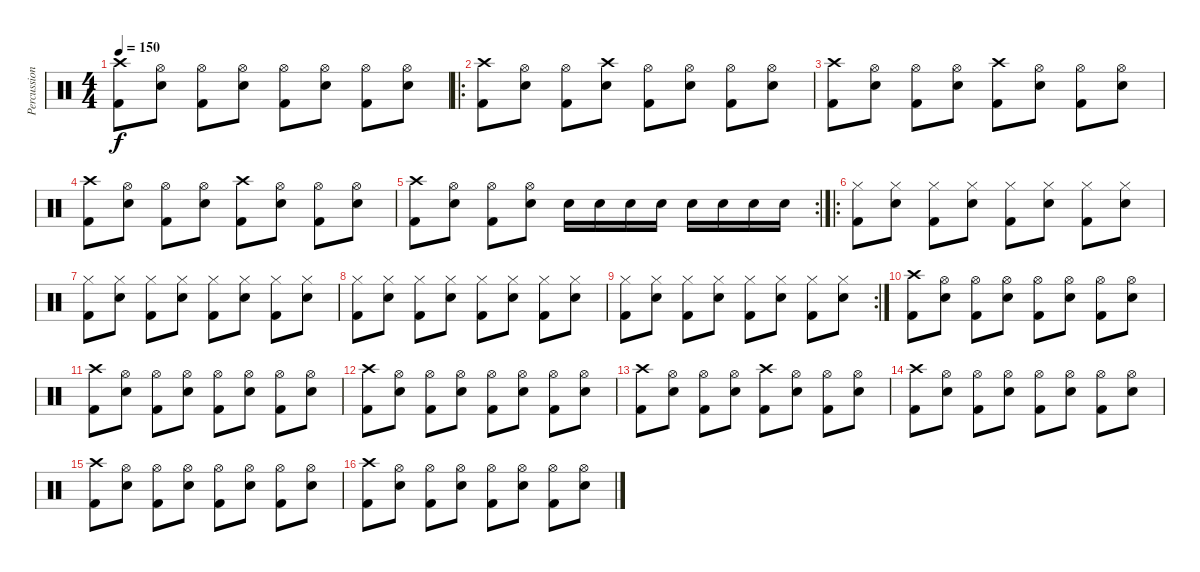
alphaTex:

\track ("Percussion" "Percussion") {instrument percussion}
\staff {score}
\articulation defaults
\ts (4 4)
\tempo 150
\clef neutral
\ks c
("Crash high (hit)" "Kick (hit) 2").8{dy f} ("Hi-Hat (open)" "Electric Snare (hit)").8 ("Hi-Hat (open)" "Kick (hit) 2").8 ("Hi-Hat (open)" "Electric Snare (hit)").8 ("Hi-Hat (open)" "Kick (hit) 2").8 ("Hi-Hat (open)" "Electric Snare (hit)").8 ("Hi-Hat (open)" "Kick (hit) 2").8 ("Hi-Hat (open)" "Electric Snare (hit)").8 |
\ro
("Crash high (hit)" "Kick (hit) 2").8 ("Hi-Hat (open)" "Electric Snare (hit)").8 ("Hi-Hat (open)" "Kick (hit) 2").8 ("Crash high (hit)" "Electric Snare (hit)").8 ("Hi-Hat (open)" "Kick (hit) 2").8 ("Hi-Hat (open)" "Electric Snare (hit)").8 ("Hi-Hat (open)" "Kick (hit) 2").8 ("Hi-Hat (open)" "Electric Snare (hit)").8 |
("Crash high (hit)" "Kick (hit) 2").8 ("Hi-Hat (open)" "Electric Snare (hit)").8 ("Hi-Hat (open)" "Kick (hit) 2").8 ("Hi-Hat (open)" "Electric Snare (hit)").8 ("Crash high (hit)" "Kick (hit) 2").8 ("Hi-Hat (open)" "Electric Snare (hit)").8 ("Hi-Hat (open)" "Kick (hit) 2").8 ("Hi-Hat (open)" "Electric Snare (hit)").8 |
("Crash high (hit)" "Kick (hit) 2").8 ("Hi-Hat (open)" "Electric Snare (hit)").8 ("Hi-Hat (open)" "Kick (hit) 2").8 ("Hi-Hat (open)" "Electric Snare (hit)").8 ("Crash high (hit)" "Kick (hit) 2").8 ("Hi-Hat (open)" "Electric Snare (hit)").8 ("Hi-Hat (open)" "Kick (hit) 2").8 ("Hi-Hat (open)" "Electric Snare (hit)").8 |
\rc 2
("Crash high (hit)" "Kick (hit) 2").8 ("Hi-Hat (open)" "Electric Snare (hit)").8 ("Hi-Hat (open)" "Kick (hit) 2").8 ("Hi-Hat (open)" "Electric Snare (hit)").8 "Electric Snare (hit)".16 "Electric Snare (hit)".16 "Electric Snare (hit)".16 "Electric Snare (hit)".16 "Electric Snare (hit)".16 "Electric Snare (hit)".16 "Electric Snare (hit)".16 "Electric Snare (hit)".16 |
\ro
("Hi-Hat (closed)" "Kick (hit) 2").8 ("Hi-Hat (closed)" "Electric Snare (hit)").8 ("Hi-Hat (closed)" "Kick (hit) 2").8 ("Hi-Hat (closed)" "Electric Snare (hit)").8 ("Hi-Hat (closed)" "Kick (hit) 2").8 ("Hi-Hat (closed)" "Electric Snare (hit)").8 ("Hi-Hat (closed)" "Kick (hit) 2").8 ("Hi-Hat (closed)" "Electric Snare (hit)").8 |
("Hi-Hat (closed)" "Kick (hit) 2").8 ("Hi-Hat (closed)" "Electric Snare (hit)").8 ("Hi-Hat (closed)" "Kick (hit) 2").8 ("Hi-Hat (closed)" "Electric Snare (hit)").8 ("Hi-Hat (closed)" "Kick (hit) 2").8 ("Hi-Hat (closed)" "Electric Snare (hit)").8 ("Hi-Hat (closed)" "Kick (hit) 2").8 ("Hi-Hat (closed)" "Electric Snare (hit)").8 |
("Hi-Hat (closed)" "Kick (hit) 2").8 ("Hi-Hat (closed)" "Electric Snare (hit)").8 ("Hi-Hat (closed)" "Kick (hit) 2").8 ("Hi-Hat (closed)" "Electric Snare (hit)").8 ("Hi-Hat (closed)" "Kick (hit) 2").8 ("Hi-Hat (closed)" "Electric Snare (hit)").8 ("Hi-Hat (closed)" "Kick (hit) 2").8 ("Hi-Hat (closed)" "Electric Snare (hit)").8 |
\rc 2
("Hi-Hat (closed)" "Kick (hit) 2").8 ("Hi-Hat (closed)" "Electric Snare (hit)").8 ("Hi-Hat (closed)" "Kick (hit) 2").8 ("Hi-Hat (closed)" "Electric Snare (hit)").8 ("Hi-Hat (closed)" "Kick (hit) 2").8 ("Hi-Hat (closed)" "Electric Snare (hit)").8 ("Hi-Hat (closed)" "Kick (hit) 2").8 ("Hi-Hat (closed)" "Electric Snare (hit)").8 |
("Crash high (hit)" "Kick (hit) 2").8 ("Hi-Hat (open)" "Electric Snare (hit)").8 ("Hi-Hat (open)" "Kick (hit) 2").8 ("Hi-Hat (open)" "Electric Snare (hit)").8 ("Hi-Hat (open)" "Kick (hit) 2").8 ("Hi-Hat (open)" "Electric Snare (hit)").8 ("Hi-Hat (open)" "Kick (hit) 2").8 ("Hi-Hat (open)" "Electric Snare (hit)").8 |
("Crash high (hit)" "Kick (hit) 2").8 ("Hi-Hat (open)" "Electric Snare (hit)").8 ("Hi-Hat (open)" "Kick (hit) 2").8 ("Hi-Hat (open)" "Electric Snare (hit)").8 ("Hi-Hat (open)" "Kick (hit) 2").8 ("Hi-Hat (open)" "Electric Snare (hit)").8 ("Hi-Hat (open)" "Kick (hit) 2").8 ("Hi-Hat (open)" "Electric Snare (hit)").8 |
("Crash high (hit)" "Kick (hit) 2").8 ("Hi-Hat (open)" "Electric Snare (hit)").8 ("Hi-Hat (open)" "Kick (hit) 2").8 ("Hi-Hat (open)" "Electric Snare (hit)").8 ("Hi-Hat (open)" "Kick (hit) 2").8 ("Hi-Hat (open)" "Electric Snare (hit)").8 ("Hi-Hat (open)" "Kick (hit) 2").8 ("Hi-Hat (open)" "Electric Snare (hit)").8 |
("Crash high (hit)" "Kick (hit) 2").8 ("Hi-Hat (open)" "Electric Snare (hit)").8 ("Hi-Hat (open)" "Kick (hit) 2").8 ("Hi-Hat (open)" "Electric Snare (hit)").8 ("Crash high (hit)" "Kick (hit) 2").8 ("Hi-Hat (open)" "Electric Snare (hit)").8 ("Hi-Hat (open)" "Kick (hit) 2").8 ("Hi-Hat (open)" "Electric Snare (hit)").8 |
("Crash high (hit)" "Kick (hit) 2").8 ("Hi-Hat (open)" "Electric Snare (hit)").8 ("Hi-Hat (open)" "Kick (hit) 2").8 ("Hi-Hat (open)" "Electric Snare (hit)").8 ("Hi-Hat (open)" "Kick (hit) 2").8 ("Hi-Hat (open)" "Electric Snare (hit)").8 ("Hi-Hat (open)" "Kick (hit) 2").8 ("Hi-Hat (open)" "Electric Snare (hit)").8 |
("Crash high (hit)" "Kick (hit) 2").8 ("Hi-Hat (open)" "Electric Snare (hit)").8 ("Hi-Hat (open)" "Kick (hit) 2").8 ("Hi-Hat (open)" "Electric Snare (hit)").8 ("Hi-Hat (open)" "Kick (hit) 2").8 ("Hi-Hat (open)" "Electric Snare (hit)").8 ("Hi-Hat (open)" "Kick (hit) 2").8 ("Hi-Hat (open)" "Electric Snare (hit)").8 |
("Crash high (hit)" "Kick (hit) 2").8 ("Hi-Hat (open)" "Electric Snare (hit)").8 ("Hi-Hat (open)" "Kick (hit) 2").8 ("Hi-Hat (open)" "Electric Snare (hit)").8 ("Hi-Hat (open)" "Kick (hit) 2").8 ("Hi-Hat (open)" "Electric Snare (hit)").8 ("Hi-Hat (open)" "Kick (hit) 2").8 ("Hi-Hat (open)" "Electric Snare (hit)").8
